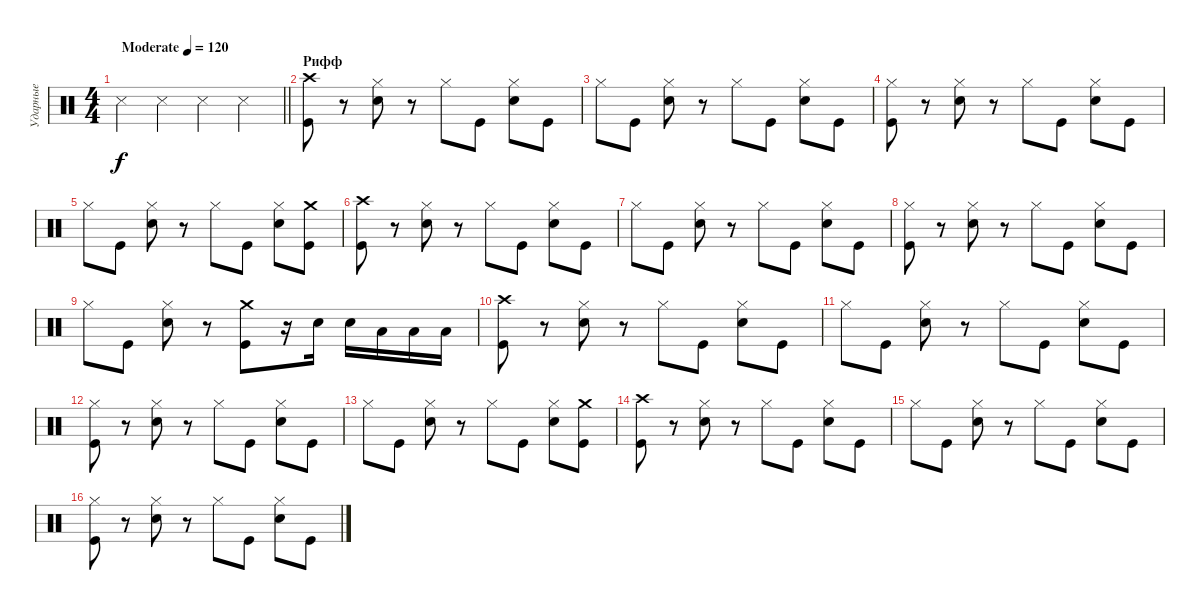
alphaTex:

\track ("Ударные" "Ударные") {instrument percussion}
\staff {score}
\articulation defaults
\ts (4 4)
\tempo (120 "Moderate")
\clef neutral
\barLineRight lightlight
\ks c "Snare (side stick) 3".4{dy f} "Snare (side stick) 3".4 "Snare (side stick) 3".4 "Snare (side stick) 3".4
|
\section ("" "Рифф")
("Crash high (hit)" "Kick (hit)").8 r.8 ("Hi-Hat (closed)" "Snare (hit) 2").8 r.8 "Hi-Hat (closed)".8 "Kick (hit)".8 ("Hi-Hat (closed)" "Snare (hit) 2").8 "Kick (hit)".8 |
"Hi-Hat (closed)".8 "Kick (hit)".8 ("Hi-Hat (closed)" "Snare (hit) 2").8 r.8 "Hi-Hat (closed)".8 "Kick (hit)".8 ("Hi-Hat (closed)" "Snare (hit) 2").8 "Kick (hit)".8 |
("Hi-Hat (closed)" "Kick (hit)").8 r.8 ("Hi-Hat (closed)" "Snare (hit) 2").8 r.8 "Hi-Hat (closed)".8 "Kick (hit)".8 ("Hi-Hat (closed)" "Snare (hit) 2").8 "Kick (hit)".8 |
"Hi-Hat (closed)".8 "Kick (hit)".8 ("Hi-Hat (closed)" "Snare (hit) 2").8 r.8 "Hi-Hat (closed)".8 "Kick (hit)".8 ("Hi-Hat (closed)" "Snare (hit) 2").8 ("Crash medium (hit)" "Kick (hit)").8 |
("Crash high (hit)" "Kick (hit)").8 r.8 ("Hi-Hat (closed)" "Snare (hit) 2").8 r.8 "Hi-Hat (closed)".8 "Kick (hit)".8 ("Hi-Hat (closed)" "Snare (hit) 2").8 "Kick (hit)".8 |
"Hi-Hat (closed)".8 "Kick (hit)".8 ("Hi-Hat (closed)" "Snare (hit) 2").8 r.8 "Hi-Hat (closed)".8 "Kick (hit)".8 ("Hi-Hat (closed)" "Snare (hit) 2").8 "Kick (hit)".8 |
("Hi-Hat (closed)" "Kick (hit)").8 r.8 ("Hi-Hat (closed)" "Snare (hit) 2").8 r.8 "Hi-Hat (closed)".8 "Kick (hit)".8 ("Hi-Hat (closed)" "Snare (hit) 2").8 "Kick (hit)".8 |
"Hi-Hat (closed)".8 "Kick (hit)".8 ("Hi-Hat (closed)" "Snare (hit) 2").8 r.8 ("Crash medium (hit)" "Kick (hit)").8 r.16 "Snare (hit) 2".16 "Snare (hit) 2".16 "Low Tom (hit)".16 "Low Tom (hit)".16 "Low Tom (hit)".16 |
("Crash high (hit)" "Kick (hit)").8 r.8 ("Hi-Hat (closed)" "Snare (hit) 2").8 r.8 "Hi-Hat (closed)".8 "Kick (hit)".8 ("Hi-Hat (closed)" "Snare (hit) 2").8 "Kick (hit)".8 |
"Hi-Hat (closed)".8 "Kick (hit)".8 ("Hi-Hat (closed)" "Snare (hit) 2").8 r.8 "Hi-Hat (closed)".8 "Kick (hit)".8 ("Hi-Hat (closed)" "Snare (hit) 2").8 "Kick (hit)".8 |
("Hi-Hat (closed)" "Kick (hit)").8 r.8 ("Hi-Hat (closed)" "Snare (hit) 2").8 r.8 "Hi-Hat (closed)".8 "Kick (hit)".8 ("Hi-Hat (closed)" "Snare (hit) 2").8 "Kick (hit)".8 |
"Hi-Hat (closed)".8 "Kick (hit)".8 ("Hi-Hat (closed)" "Snare (hit) 2").8 r.8 "Hi-Hat (closed)".8 "Kick (hit)".8 ("Hi-Hat (closed)" "Snare (hit) 2").8 ("Crash medium (hit)" "Kick (hit)").8 |
("Crash high (hit)" "Kick (hit)").8 r.8 ("Hi-Hat (closed)" "Snare (hit) 2").8 r.8 "Hi-Hat (closed)".8 "Kick (hit)".8 ("Hi-Hat (closed)" "Snare (hit) 2").8 "Kick (hit)".8 |
"Hi-Hat (closed)".8 "Kick (hit)".8 ("Hi-Hat (closed)" "Snare (hit) 2").8 r.8 "Hi-Hat (closed)".8 "Kick (hit)".8 ("Hi-Hat (closed)" "Snare (hit) 2").8 "Kick (hit)".8 |
("Hi-Hat (closed)" "Kick (hit)").8 r.8 ("Hi-Hat (closed)" "Snare (hit) 2").8 r.8 "Hi-Hat (closed)".8 "Kick (hit)".8 ("Hi-Hat (closed)" "Snare (hit) 2").8 "Kick (hit)".8
